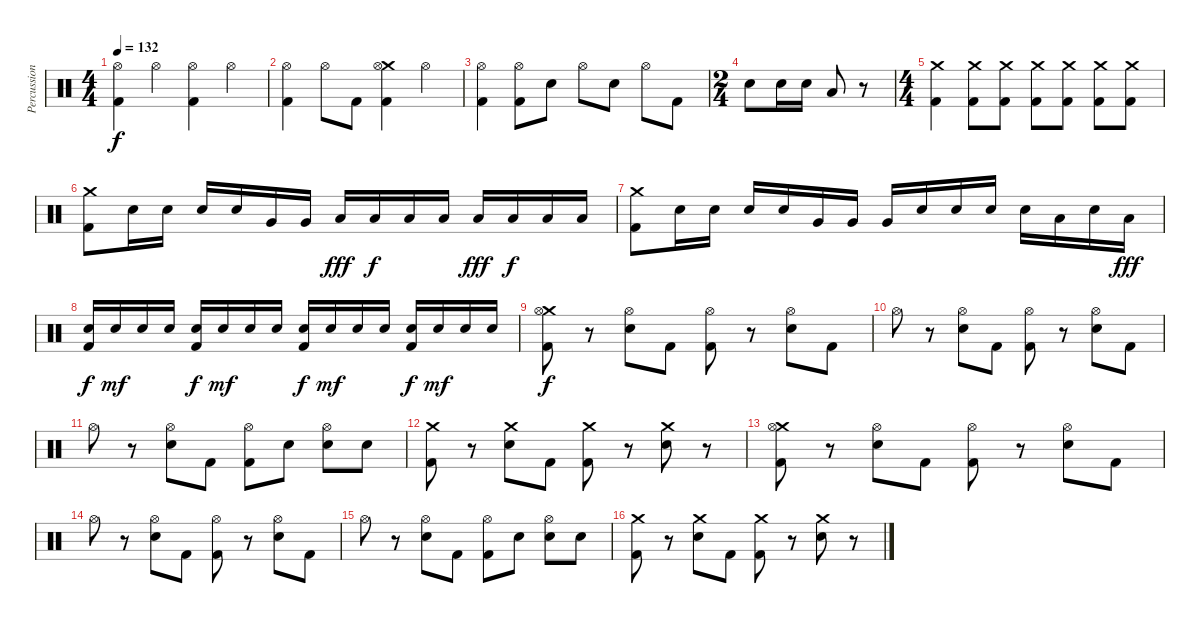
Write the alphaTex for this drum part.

\track ("Percussion" "Percussion") {instrument percussion}
\staff {score}
\articulation defaults
\ts (4 4)
\tempo 132
\clef neutral
\ks c
("Hi-Hat (open)" "Kick (hit) 2").4{dy f} "Hi-Hat (open)".4 ("Hi-Hat (open)" "Kick (hit) 2").4 "Hi-Hat (open)".4 |
("Hi-Hat (open)" "Kick (hit) 2").4 "Hi-Hat (open)".8 "Kick (hit) 2".8 ("Crash medium (hit)" "Hi-Hat (open)" "Kick (hit) 2").4 "Hi-Hat (open)".4 |
("Hi-Hat (open)" "Kick (hit) 2").4 ("Hi-Hat (open)" "Kick (hit) 2").8 "Snare (hit) 2".8 "Hi-Hat (open)".8 "Snare (hit) 2".8 "Hi-Hat (open)".8 "Kick (hit) 2".8 |
\ts (2 4)
"Snare (hit) 2".8 "Snare (hit) 2".16 "Snare (hit) 2".16 "Low Floor Tom (hit)".8 r.8 |
\ts (4 4)
("Crash medium (hit)" "Kick (hit) 2").4 ("Crash medium (hit)" "Kick (hit) 2").8 ("Crash medium (hit)" "Kick (hit) 2").8 ("Crash medium (hit)" "Kick (hit) 2").8 ("Crash medium (hit)" "Kick (hit) 2").8 ("Crash medium (hit)" "Kick (hit) 2").8 ("Crash medium (hit)" "Kick (hit) 2").8 |
("Crash medium (hit)" "Kick (hit) 2").8 "Snare (hit) 2".16 "Snare (hit) 2".16 "Snare (hit) 2".16 "Snare (hit) 2".16 "Very Low Tom (hit)".16 "Very Low Tom (hit)".16 "Low Floor Tom (hit)".16{dy fff} "Low Floor Tom (hit)".16{dy f} "Low Floor Tom (hit)".16 "Low Floor Tom (hit)".16 "Low Floor Tom (hit)".16{dy fff} "Low Floor Tom (hit)".16{dy f} "Low Floor Tom (hit)".16 "Low Floor Tom (hit)".16 |
("Crash medium (hit)" "Kick (hit) 2").8 "Snare (hit) 2".16 "Snare (hit) 2".16 "Snare (hit) 2".16 "Snare (hit) 2".16 "Very Low Tom (hit)".16 "Very Low Tom (hit)".16 "Very Low Tom (hit)".16 "Snare (hit) 2".16 "Snare (hit) 2".16 "Snare (hit) 2".16 "Snare (hit) 2".16 "Low Floor Tom (hit)".16 "Snare (hit) 2".16 "Low Floor Tom (hit)".16{dy fff} |
("Snare (hit) 2" "Kick (hit) 2").16{dy f} "Snare (hit) 2".16{dy mf} "Snare (hit) 2".16 "Snare (hit) 2".16 ("Snare (hit) 2" "Kick (hit) 2").16{dy f} "Snare (hit) 2".16{dy mf} "Snare (hit) 2".16 "Snare (hit) 2".16 ("Snare (hit) 2" "Kick (hit) 2").16{dy f} "Snare (hit) 2".16{dy mf} "Snare (hit) 2".16 "Snare (hit) 2".16 ("Snare (hit) 2" "Kick (hit) 2").16{dy f} "Snare (hit) 2".16{dy mf} "Snare (hit) 2".16 "Snare (hit) 2".16 |
("Crash medium (hit)" "Hi-Hat (open)" "Kick (hit) 2").8{dy f} r.8 ("Hi-Hat (open)" "Snare (hit) 2").8 "Kick (hit) 2".8 ("Hi-Hat (open)" "Kick (hit) 2").8 r.8 ("Hi-Hat (open)" "Snare (hit) 2").8 "Kick (hit) 2".8 |
"Hi-Hat (open)".8 r.8 ("Hi-Hat (open)" "Snare (hit) 2").8 "Kick (hit) 2".8 ("Hi-Hat (open)" "Kick (hit) 2").8 r.8 ("Hi-Hat (open)" "Snare (hit) 2").8 "Kick (hit) 2".8 |
"Hi-Hat (open)".8 r.8 ("Hi-Hat (open)" "Snare (hit) 2").8 "Kick (hit) 2".8 ("Hi-Hat (open)" "Kick (hit) 2").8 "Snare (hit) 2".8 ("Hi-Hat (open)" "Snare (hit) 2").8 "Snare (hit) 2".8 |
("Crash medium (hit)" "Kick (hit) 2").8 r.8 ("Crash medium (hit)" "Snare (hit) 2").8 "Kick (hit) 2".8 ("Crash medium (hit)" "Kick (hit) 2").8 r.8 ("Crash medium (hit)" "Snare (hit) 2").8 r.8 |
("Crash medium (hit)" "Hi-Hat (open)" "Kick (hit) 2").8 r.8 ("Hi-Hat (open)" "Snare (hit) 2").8 "Kick (hit) 2".8 ("Hi-Hat (open)" "Kick (hit) 2").8 r.8 ("Hi-Hat (open)" "Snare (hit) 2").8 "Kick (hit) 2".8 |
"Hi-Hat (open)".8 r.8 ("Hi-Hat (open)" "Snare (hit) 2").8 "Kick (hit) 2".8 ("Hi-Hat (open)" "Kick (hit) 2").8 r.8 ("Hi-Hat (open)" "Snare (hit) 2").8 "Kick (hit) 2".8 |
"Hi-Hat (open)".8 r.8 ("Hi-Hat (open)" "Snare (hit) 2").8 "Kick (hit) 2".8 ("Hi-Hat (open)" "Kick (hit) 2").8 "Snare (hit) 2".8 ("Hi-Hat (open)" "Snare (hit) 2").8 "Snare (hit) 2".8 |
("Crash medium (hit)" "Kick (hit) 2").8 r.8 ("Crash medium (hit)" "Snare (hit) 2").8 "Kick (hit) 2".8 ("Crash medium (hit)" "Kick (hit) 2").8 r.8 ("Crash medium (hit)" "Snare (hit) 2").8 r.8
